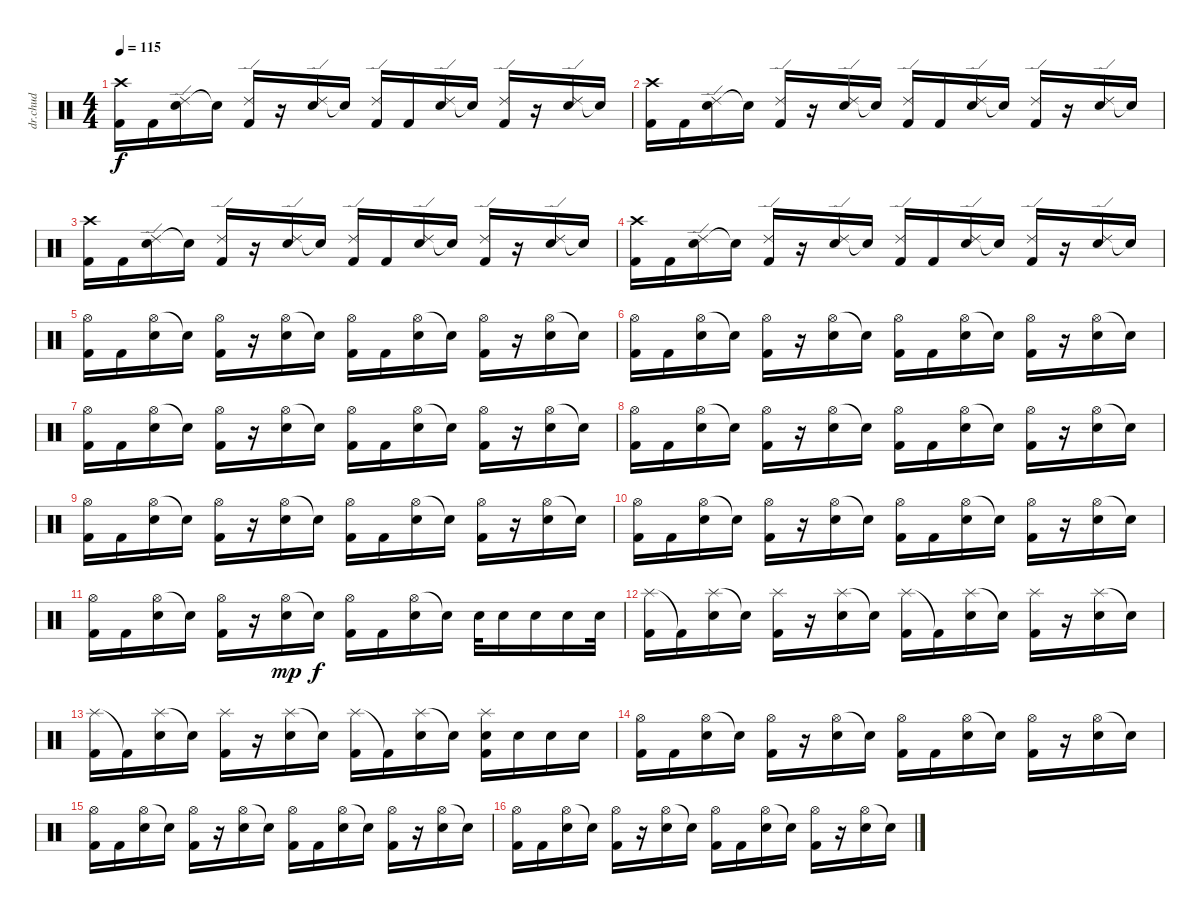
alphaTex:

\track ("dr.chud" "dr.chud") {instrument percussion}
\staff {score}
\articulation defaults
\ts (4 4)
\tempo 115
\clef neutral
\ks c
("Crash high (hit)" "Kick (hit) 2").16{dy f} "Kick (hit) 2".16 ("Ride (edge) 2" "Electric Snare (hit)").16 "Snare (hit)"{t}.16 ("Ride (edge) 2" "Kick (hit) 2").16 r.16 ("Ride (edge) 2" "Electric Snare (hit)").16 "Electric Snare (hit)"{t}.16 ("Ride (edge) 2" "Kick (hit) 2").16 "Kick (hit) 2".16 ("Ride (edge) 2" "Electric Snare (hit)").16 "Snare (hit)"{t}.16 ("Ride (edge) 2" "Kick (hit) 2").16 r.16 ("Ride (edge) 2" "Electric Snare (hit)").16 "Snare (hit)"{t}.16 |
("Crash high (hit)" "Kick (hit) 2").16 "Kick (hit) 2".16 ("Ride (edge) 2" "Electric Snare (hit)").16 "Snare (hit)"{t}.16 ("Ride (edge) 2" "Kick (hit) 2").16 r.16 ("Ride (edge) 2" "Electric Snare (hit)").16 "Electric Snare (hit)"{t}.16 ("Ride (edge) 2" "Kick (hit) 2").16 "Kick (hit) 2".16 ("Ride (edge) 2" "Electric Snare (hit)").16 "Snare (hit)"{t}.16 ("Ride (edge) 2" "Kick (hit) 2").16 r.16 ("Ride (edge) 2" "Electric Snare (hit)").16 "Snare (hit)"{t}.16 |
("Crash high (hit)" "Kick (hit) 2").16 "Kick (hit) 2".16 ("Ride (edge) 2" "Electric Snare (hit)").16 "Snare (hit)"{t}.16 ("Ride (edge) 2" "Kick (hit) 2").16 r.16 ("Ride (edge) 2" "Electric Snare (hit)").16 "Electric Snare (hit)"{t}.16 ("Ride (edge) 2" "Kick (hit) 2").16 "Kick (hit) 2".16 ("Ride (edge) 2" "Electric Snare (hit)").16 "Snare (hit)"{t}.16 ("Ride (edge) 2" "Kick (hit) 2").16 r.16 ("Ride (edge) 2" "Electric Snare (hit)").16 "Snare (hit)"{t}.16 |
("Crash high (hit)" "Kick (hit) 2").16 "Kick (hit) 2".16 ("Ride (edge) 2" "Electric Snare (hit)").16 "Snare (hit)"{t}.16 ("Ride (edge) 2" "Kick (hit) 2").16 r.16 ("Ride (edge) 2" "Electric Snare (hit)").16 "Electric Snare (hit)"{t}.16 ("Ride (edge) 2" "Kick (hit) 2").16 "Kick (hit) 2".16 ("Ride (edge) 2" "Electric Snare (hit)").16 "Snare (hit)"{t}.16 ("Ride (edge) 2" "Kick (hit) 2").16 r.16 ("Ride (edge) 2" "Electric Snare (hit)").16 "Snare (hit)"{t}.16 |
("Hi-Hat (open)" "Kick (hit) 2").16 "Kick (hit) 2".16 ("Hi-Hat (open)" "Electric Snare (hit)").16 "Snare (hit)"{t}.16 ("Hi-Hat (open)" "Kick (hit) 2").16 r.16 ("Hi-Hat (open)" "Electric Snare (hit)").16 "Electric Snare (hit)"{t}.16 ("Hi-Hat (open)" "Kick (hit) 2").16 "Kick (hit) 2".16 ("Hi-Hat (open)" "Electric Snare (hit)").16 "Snare (hit)"{t}.16 ("Hi-Hat (open)" "Kick (hit) 2").16 r.16 ("Hi-Hat (open)" "Electric Snare (hit)").16 "Snare (hit)"{t}.16 |
("Hi-Hat (open)" "Kick (hit) 2").16 "Kick (hit) 2".16 ("Hi-Hat (open)" "Electric Snare (hit)").16 "Snare (hit)"{t}.16 ("Hi-Hat (open)" "Kick (hit) 2").16 r.16 ("Hi-Hat (open)" "Electric Snare (hit)").16 "Electric Snare (hit)"{t}.16 ("Hi-Hat (open)" "Kick (hit) 2").16 "Kick (hit) 2".16 ("Hi-Hat (open)" "Electric Snare (hit)").16 "Snare (hit)"{t}.16 ("Hi-Hat (open)" "Kick (hit) 2").16 r.16 ("Hi-Hat (open)" "Electric Snare (hit)").16 "Snare (hit)"{t}.16 |
("Hi-Hat (open)" "Kick (hit) 2").16 "Kick (hit) 2".16 ("Hi-Hat (open)" "Electric Snare (hit)").16 "Snare (hit)"{t}.16 ("Hi-Hat (open)" "Kick (hit) 2").16 r.16 ("Hi-Hat (open)" "Electric Snare (hit)").16 "Electric Snare (hit)"{t}.16 ("Hi-Hat (open)" "Kick (hit) 2").16 "Kick (hit) 2".16 ("Hi-Hat (open)" "Electric Snare (hit)").16 "Snare (hit)"{t}.16 ("Hi-Hat (open)" "Kick (hit) 2").16 r.16 ("Hi-Hat (open)" "Electric Snare (hit)").16 "Snare (hit)"{t}.16 |
("Hi-Hat (open)" "Kick (hit) 2").16 "Kick (hit) 2".16 ("Hi-Hat (open)" "Electric Snare (hit)").16 "Snare (hit)"{t}.16 ("Hi-Hat (open)" "Kick (hit) 2").16 r.16 ("Hi-Hat (open)" "Electric Snare (hit)").16 "Electric Snare (hit)"{t}.16 ("Hi-Hat (open)" "Kick (hit) 2").16 "Kick (hit) 2".16 ("Hi-Hat (open)" "Electric Snare (hit)").16 "Snare (hit)"{t}.16 ("Hi-Hat (open)" "Kick (hit) 2").16 r.16 ("Hi-Hat (open)" "Electric Snare (hit)").16 "Snare (hit)"{t}.16 |
("Hi-Hat (open)" "Kick (hit) 2").16 "Kick (hit) 2".16 ("Hi-Hat (open)" "Electric Snare (hit)").16 "Snare (hit)"{t}.16 ("Hi-Hat (open)" "Kick (hit) 2").16 r.16 ("Hi-Hat (open)" "Electric Snare (hit)").16 "Electric Snare (hit)"{t}.16 ("Hi-Hat (open)" "Kick (hit) 2").16 "Kick (hit) 2".16 ("Hi-Hat (open)" "Electric Snare (hit)").16 "Snare (hit)"{t}.16 ("Hi-Hat (open)" "Kick (hit) 2").16 r.16 ("Hi-Hat (open)" "Electric Snare (hit)").16 "Snare (hit)"{t}.16 |
("Hi-Hat (open)" "Kick (hit) 2").16 "Kick (hit) 2".16 ("Hi-Hat (open)" "Electric Snare (hit)").16 "Snare (hit)"{t}.16 ("Hi-Hat (open)" "Kick (hit) 2").16 r.16 ("Hi-Hat (open)" "Electric Snare (hit)").16 "Electric Snare (hit)"{t}.16 ("Hi-Hat (open)" "Kick (hit) 2").16 "Kick (hit) 2".16 ("Hi-Hat (open)" "Electric Snare (hit)").16 "Snare (hit)"{t}.16 ("Hi-Hat (open)" "Kick (hit) 2").16 r.16 ("Hi-Hat (open)" "Electric Snare (hit)").16 "Snare (hit)"{t}.16 |
("Hi-Hat (open)" "Kick (hit) 2").16 "Kick (hit) 2".16 ("Hi-Hat (open)" "Electric Snare (hit)").16 "Snare (hit)"{t}.16 ("Hi-Hat (open)" "Kick (hit) 2").16 r.16 ("Hi-Hat (open)" "Electric Snare (hit)").16{dy mp} "Electric Snare (hit)"{t}.16{dy f} ("Hi-Hat (open)" "Kick (hit) 2").16 "Kick (hit) 2".16 ("Hi-Hat (open)" "Electric Snare (hit)").16 "Snare (hit)"{t}.16 "Electric Snare (hit)".32 "Electric Snare (hit)".16 "Electric Snare (hit)".16 "Electric Snare (hit)".16 "Electric Snare (hit)".32 |
("Splash (hit)" "Kick (hit) 2").16 "Kick (hit) 2"{t}.16 ("Splash (hit)" "Electric Snare (hit)").16 "Snare (hit)"{t}.16 ("Splash (hit)" "Kick (hit) 2").16 r.16 ("Splash (hit)" "Electric Snare (hit)").16 "Electric Snare (hit)"{t}.16 ("Splash (hit)" "Kick (hit) 2").16 "Kick (hit) 2"{t}.16 ("Splash (hit)" "Electric Snare (hit)").16 "Snare (hit)"{t}.16 ("Splash (hit)" "Kick (hit) 2").16 r.16 ("Splash (hit)" "Electric Snare (hit)").16 "Snare (hit)"{t}.16 |
("Splash (hit)" "Kick (hit) 2").16 "Kick (hit) 2"{t}.16 ("Splash (hit)" "Electric Snare (hit)").16 "Snare (hit)"{t}.16 ("Splash (hit)" "Kick (hit) 2").16 r.16 ("Splash (hit)" "Electric Snare (hit)").16 "Electric Snare (hit)"{t}.16 ("Splash (hit)" "Kick (hit) 2").16 "Kick (hit) 2"{t}.16 ("Splash (hit)" "Electric Snare (hit)").16 "Snare (hit)"{t}.16 ("Splash (hit)" "Electric Snare (hit)" "Kick (hit) 2").16 "Electric Snare (hit)".16 "Electric Snare (hit)".16 "Electric Snare (hit)".16 |
("Hi-Hat (open)" "Kick (hit) 2").16 "Kick (hit) 2".16 ("Hi-Hat (open)" "Electric Snare (hit)").16 "Snare (hit)"{t}.16 ("Hi-Hat (open)" "Kick (hit) 2").16 r.16 ("Hi-Hat (open)" "Electric Snare (hit)").16 "Electric Snare (hit)"{t}.16 ("Hi-Hat (open)" "Kick (hit) 2").16 "Kick (hit) 2".16 ("Hi-Hat (open)" "Electric Snare (hit)").16 "Snare (hit)"{t}.16 ("Hi-Hat (open)" "Kick (hit) 2").16 r.16 ("Hi-Hat (open)" "Electric Snare (hit)").16 "Snare (hit)"{t}.16 |
("Hi-Hat (open)" "Kick (hit) 2").16 "Kick (hit) 2".16 ("Hi-Hat (open)" "Electric Snare (hit)").16 "Snare (hit)"{t}.16 ("Hi-Hat (open)" "Kick (hit) 2").16 r.16 ("Hi-Hat (open)" "Electric Snare (hit)").16 "Electric Snare (hit)"{t}.16 ("Hi-Hat (open)" "Kick (hit) 2").16 "Kick (hit) 2".16 ("Hi-Hat (open)" "Electric Snare (hit)").16 "Snare (hit)"{t}.16 ("Hi-Hat (open)" "Kick (hit) 2").16 r.16 ("Hi-Hat (open)" "Electric Snare (hit)").16 "Snare (hit)"{t}.16 |
("Hi-Hat (open)" "Kick (hit) 2").16 "Kick (hit) 2".16 ("Hi-Hat (open)" "Electric Snare (hit)").16 "Snare (hit)"{t}.16 ("Hi-Hat (open)" "Kick (hit) 2").16 r.16 ("Hi-Hat (open)" "Electric Snare (hit)").16 "Electric Snare (hit)"{t}.16 ("Hi-Hat (open)" "Kick (hit) 2").16 "Kick (hit) 2".16 ("Hi-Hat (open)" "Electric Snare (hit)").16 "Snare (hit)"{t}.16 ("Hi-Hat (open)" "Kick (hit) 2").16 r.16 ("Hi-Hat (open)" "Electric Snare (hit)").16 "Snare (hit)"{t}.16
